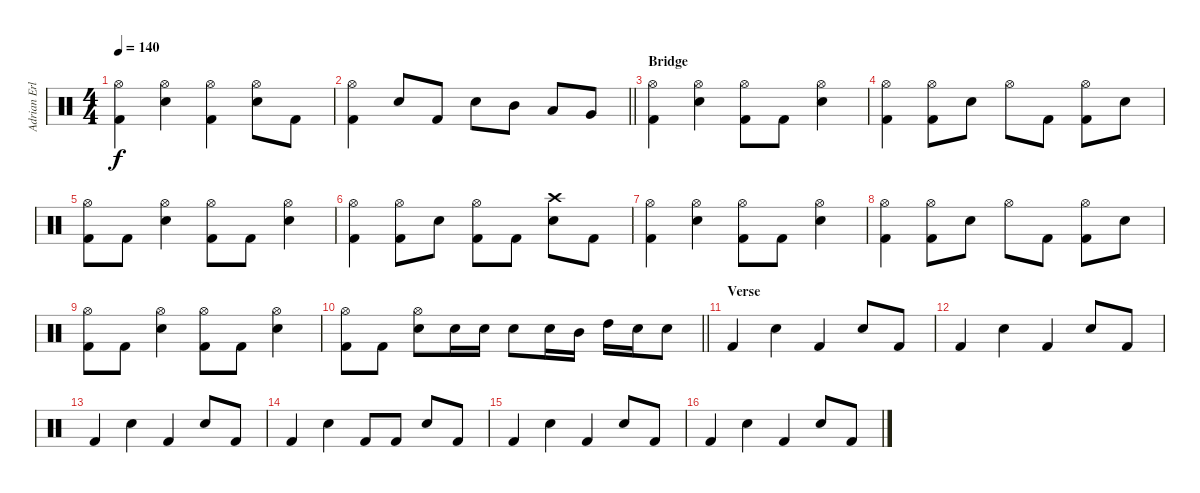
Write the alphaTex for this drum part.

\track ("Adrian Erlandsson" "Adrian Erl") {instrument percussion}
\staff {score}
\articulation defaults
\ts (4 4)
\tempo 140
\clef neutral
\ks c
("Hi-Hat (open)" "Kick (hit) 2").4{dy f} ("Hi-Hat (open)" "Snare (hit) 2").4 ("Hi-Hat (open)" "Kick (hit) 2").4 ("Hi-Hat (open)" "Snare (hit) 2").8 "Kick (hit) 2".8 |
\barLineRight lightlight
("Hi-Hat (open)" "Kick (hit) 2").4 "Snare (hit) 2".8 "Kick (hit) 2".8 "Snare (hit) 2".8 "Mid Tom (hit)".8 "Low Tom (hit)".8 "Very Low Tom (hit)".8 |
\section ("" "Bridge")
("Hi-Hat (open)" "Kick (hit) 2").4 ("Hi-Hat (open)" "Snare (hit) 2").4 ("Hi-Hat (open)" "Kick (hit) 2").8 "Kick (hit) 2".8 ("Hi-Hat (open)" "Snare (hit) 2").4 |
("Hi-Hat (open)" "Kick (hit) 2").4 ("Hi-Hat (open)" "Kick (hit) 2").8 "Snare (hit) 2".8 "Hi-Hat (open)".8 "Kick (hit) 2".8 ("Hi-Hat (open)" "Kick (hit) 2").8 "Snare (hit) 2".8 |
("Hi-Hat (open)" "Kick (hit) 2").8 "Kick (hit) 2".8 ("Hi-Hat (open)" "Snare (hit) 2").4 ("Hi-Hat (open)" "Kick (hit) 2").8 "Kick (hit) 2".8 ("Hi-Hat (open)" "Snare (hit) 2").4 |
("Hi-Hat (open)" "Kick (hit) 2").4 ("Hi-Hat (open)" "Kick (hit) 2").8 "Snare (hit) 2".8 ("Hi-Hat (open)" "Kick (hit) 2").8 "Kick (hit) 2".8 ("Crash high (hit)" "Snare (hit) 2").8 "Kick (hit) 2".8 |
("Hi-Hat (open)" "Kick (hit) 2").4 ("Hi-Hat (open)" "Snare (hit) 2").4 ("Hi-Hat (open)" "Kick (hit) 2").8 "Kick (hit) 2".8 ("Hi-Hat (open)" "Snare (hit) 2").4 |
("Hi-Hat (open)" "Kick (hit) 2").4 ("Hi-Hat (open)" "Kick (hit) 2").8 "Snare (hit) 2".8 "Hi-Hat (open)".8 "Kick (hit) 2".8 ("Hi-Hat (open)" "Kick (hit) 2").8 "Snare (hit) 2".8 |
("Hi-Hat (open)" "Kick (hit) 2").8 "Kick (hit) 2".8 ("Hi-Hat (open)" "Snare (hit) 2").4 ("Hi-Hat (open)" "Kick (hit) 2").8 "Kick (hit) 2".8 ("Hi-Hat (open)" "Snare (hit) 2").4 |
\barLineRight lightlight
("Hi-Hat (open)" "Kick (hit) 2").8 "Kick (hit) 2".8 ("Hi-Hat (open)" "Snare (hit) 2").8 "Snare (hit) 2".16 "Snare (hit) 2".16 "Snare (hit) 2".8 "Snare (hit) 2".16 "Mid Tom (hit)".16 "High Tom (hit)".16 "Snare (hit) 2".16 "Snare (hit) 2".8 |
\section ("" "Verse")
"Kick (hit) 2".4 "Snare (hit) 2".4 "Kick (hit) 2".4 "Snare (hit) 2".8 "Kick (hit) 2".8 |
"Kick (hit) 2".4 "Snare (hit) 2".4 "Kick (hit) 2".4 "Snare (hit) 2".8 "Kick (hit) 2".8 |
"Kick (hit) 2".4 "Snare (hit) 2".4 "Kick (hit) 2".4 "Snare (hit) 2".8 "Kick (hit) 2".8 |
"Kick (hit) 2".4 "Snare (hit) 2".4 "Kick (hit) 2".8 "Kick (hit) 2".8 "Snare (hit) 2".8 "Kick (hit) 2".8 |
"Kick (hit) 2".4 "Snare (hit) 2".4 "Kick (hit) 2".4 "Snare (hit) 2".8 "Kick (hit) 2".8 |
"Kick (hit) 2".4 "Snare (hit) 2".4 "Kick (hit) 2".4 "Snare (hit) 2".8 "Kick (hit) 2".8
